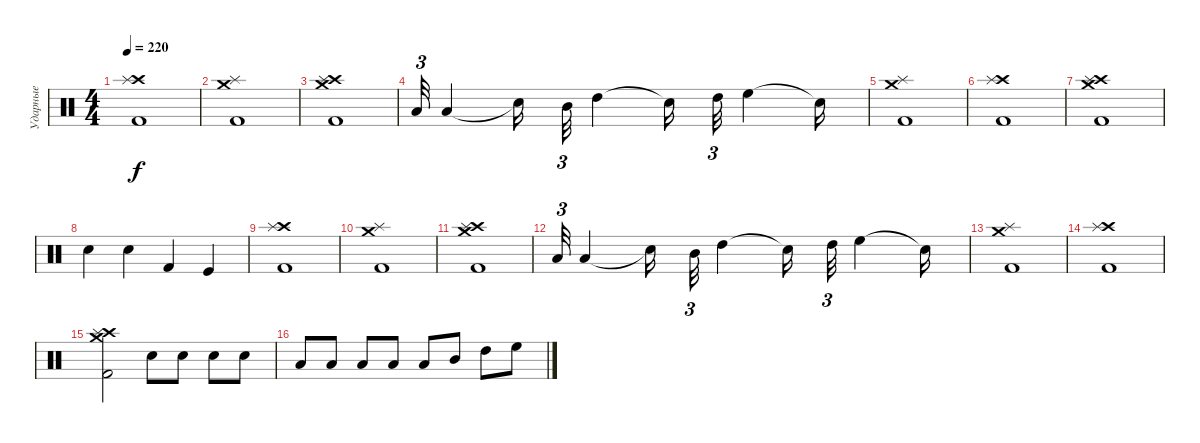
\track ("Ударные" "Ударные") {instrument percussion}
\staff {score}
\articulation defaults
\ts (4 4)
\tempo 220
\clef neutral
\ks c
("Crash high (hit)" "Splash (hit)" "Kick (hit) 2").1{dy f} |
("Crash medium (hit)" "Splash (hit)" "Kick (hit) 2").1 |
("Crash high (hit)" "Crash medium (hit)" "Splash (hit)" "Kick (hit) 2").1 |
"Low Floor Tom (hit)".32{tu (3 2)} "Low Tom (hit)".4 "Snare (hit)"{t}.16 "Mid Tom (hit)".32{tu (3 2)} "High Tom (hit)".4 "Snare (hit)"{t}.16 "High Tom (hit)".32{tu (3 2)} "High Floor Tom (hit)".4 "Snare (hit)"{t}.16 |
("Crash medium (hit)" "Splash (hit)" "Kick (hit) 2").1 |
("Crash high (hit)" "Splash (hit)" "Kick (hit) 2").1 |
("Crash high (hit)" "Crash medium (hit)" "Splash (hit)" "Kick (hit) 2").1 |
"Snare (hit) 2".4 "Snare (hit) 2".4 "Kick (hit) 2".4 "Kick (hit)".4 |
("Crash high (hit)" "Splash (hit)" "Kick (hit) 2").1 |
("Crash medium (hit)" "Splash (hit)" "Kick (hit) 2").1 |
("Crash high (hit)" "Crash medium (hit)" "Splash (hit)" "Kick (hit) 2").1 |
"Low Floor Tom (hit)".32{tu (3 2)} "Low Tom (hit)".4 "Snare (hit)"{t}.16 "Mid Tom (hit)".32{tu (3 2)} "High Tom (hit)".4 "Snare (hit)"{t}.16 "High Tom (hit)".32{tu (3 2)} "High Floor Tom (hit)".4 "Snare (hit)"{t}.16 |
("Crash medium (hit)" "Splash (hit)" "Kick (hit) 2").1 |
("Crash high (hit)" "Splash (hit)" "Kick (hit) 2").1 |
("Crash high (hit)" "Crash medium (hit)" "Splash (hit)" "Kick (hit) 2").2 "Snare (hit) 2".8 "Snare (hit) 2".8 "Snare (hit) 2".8 "Snare (hit) 2".8 |
"Low Floor Tom (hit)".8 "Low Floor Tom (hit)".8 "Low Floor Tom (hit)".8 "Low Floor Tom (hit)".8 "Low Tom (hit)".8 "Mid Tom (hit)".8 "High Tom (hit)".8 "High Floor Tom (hit)".8
